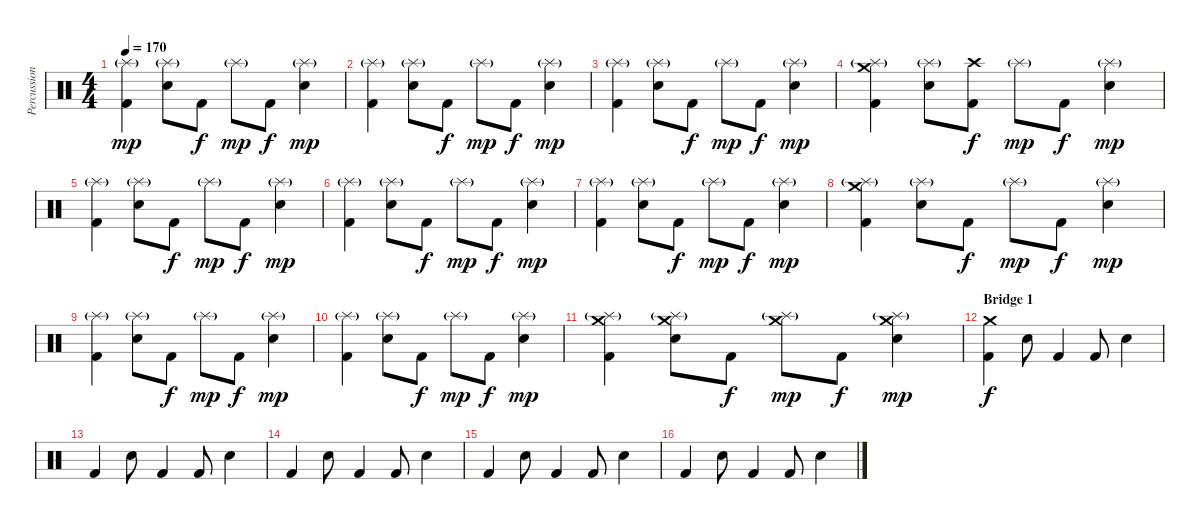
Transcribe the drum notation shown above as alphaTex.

\track ("Percussions" "Percussion") {instrument percussion}
\staff {score}
\articulation defaults
\ts (4 4)
\tempo 170
\clef neutral
\ks c
("Splash (hit)"{g} "Kick (hit) 2").4{dy mp} ("Splash (hit)"{g} "Electric Snare (hit)").8 "Kick (hit) 2".8{dy f} "Splash (hit)"{g}.8{dy mp} "Kick (hit) 2".8{dy f} ("Splash (hit)"{g} "Electric Snare (hit)").4{dy mp} |
("Splash (hit)"{g} "Kick (hit) 2").4 ("Splash (hit)"{g} "Electric Snare (hit)").8 "Kick (hit) 2".8{dy f} "Splash (hit)"{g}.8{dy mp} "Kick (hit) 2".8{dy f} ("Splash (hit)"{g} "Electric Snare (hit)").4{dy mp} |
("Splash (hit)"{g} "Kick (hit) 2").4 ("Splash (hit)"{g} "Electric Snare (hit)").8 "Kick (hit) 2".8{dy f} "Splash (hit)"{g}.8{dy mp} "Kick (hit) 2".8{dy f} ("Splash (hit)"{g} "Electric Snare (hit)").4{dy mp} |
("Crash medium (hit)" "Splash (hit)"{g} "Kick (hit) 2").4 ("Splash (hit)"{g} "Electric Snare (hit)").8 ("Crash high (hit)" "Kick (hit) 2").8{dy f} "Splash (hit)"{g}.8{dy mp} "Kick (hit) 2".8{dy f} ("Splash (hit)"{g} "Electric Snare (hit)").4{dy mp} |
("Splash (hit)"{g} "Kick (hit) 2").4 ("Splash (hit)"{g} "Electric Snare (hit)").8 "Kick (hit) 2".8{dy f} "Splash (hit)"{g}.8{dy mp} "Kick (hit) 2".8{dy f} ("Splash (hit)"{g} "Electric Snare (hit)").4{dy mp} |
("Splash (hit)"{g} "Kick (hit) 2").4 ("Splash (hit)"{g} "Electric Snare (hit)").8 "Kick (hit) 2".8{dy f} "Splash (hit)"{g}.8{dy mp} "Kick (hit) 2".8{dy f} ("Splash (hit)"{g} "Electric Snare (hit)").4{dy mp} |
("Splash (hit)"{g} "Kick (hit) 2").4 ("Splash (hit)"{g} "Electric Snare (hit)").8 "Kick (hit) 2".8{dy f} "Splash (hit)"{g}.8{dy mp} "Kick (hit) 2".8{dy f} ("Splash (hit)"{g} "Electric Snare (hit)").4{dy mp} |
("Crash medium (hit)" "Splash (hit)"{g} "Kick (hit) 2").4 ("Splash (hit)"{g} "Electric Snare (hit)").8 "Kick (hit) 2".8{dy f} "Splash (hit)"{g}.8{dy mp} "Kick (hit) 2".8{dy f} ("Splash (hit)"{g} "Electric Snare (hit)").4{dy mp} |
("Splash (hit)"{g} "Kick (hit) 2").4 ("Splash (hit)"{g} "Electric Snare (hit)").8 "Kick (hit) 2".8{dy f} "Splash (hit)"{g}.8{dy mp} "Kick (hit) 2".8{dy f} ("Splash (hit)"{g} "Electric Snare (hit)").4{dy mp} |
("Splash (hit)"{g} "Kick (hit) 2").4 ("Splash (hit)"{g} "Electric Snare (hit)").8 "Kick (hit) 2".8{dy f} "Splash (hit)"{g}.8{dy mp} "Kick (hit) 2".8{dy f} ("Splash (hit)"{g} "Electric Snare (hit)").4{dy mp} |
("Crash medium (hit)" "Splash (hit)"{g} "Kick (hit) 2").4 ("Crash medium (hit)" "Splash (hit)"{g} "Electric Snare (hit)").8 "Kick (hit) 2".8{dy f} ("Crash medium (hit)" "Splash (hit)"{g}).8{dy mp} "Kick (hit) 2".8{dy f} ("Crash medium (hit)" "Splash (hit)"{g} "Electric Snare (hit)").4{dy mp} |
\section ("" "Bridge 1")
("Crash medium (hit)" "Kick (hit) 2").4{dy f} "Electric Snare (hit)".8 "Kick (hit) 2".4 "Kick (hit) 2".8 "Electric Snare (hit)".4 |
"Kick (hit) 2".4 "Electric Snare (hit)".8 "Kick (hit) 2".4 "Kick (hit) 2".8 "Electric Snare (hit)".4 |
"Kick (hit) 2".4 "Electric Snare (hit)".8 "Kick (hit) 2".4 "Kick (hit) 2".8 "Electric Snare (hit)".4 |
"Kick (hit) 2".4 "Electric Snare (hit)".8 "Kick (hit) 2".4 "Kick (hit) 2".8 "Electric Snare (hit)".4 |
"Kick (hit) 2".4 "Electric Snare (hit)".8 "Kick (hit) 2".4 "Kick (hit) 2".8 "Electric Snare (hit)".4
